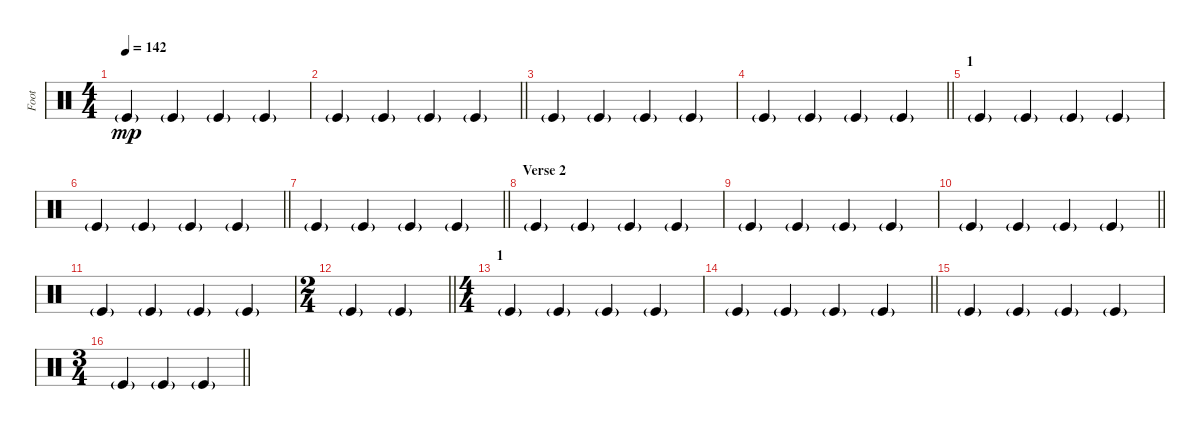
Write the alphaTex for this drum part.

\track ("Foot" "Foot") {instrument percussion}
\staff {score}
\articulation defaults
\ts (4 4)
\tempo 142
\clef neutral
\ks c "Kick (hit)"{g}.4{dy mp} "Kick (hit)"{g}.4 "Kick (hit)"{g}.4 "Kick (hit)"{g}.4
|
\barLineRight lightlight "Kick (hit)"{g}.4 "Kick (hit)"{g}.4 "Kick (hit)"{g}.4 "Kick (hit)"{g}.4
|
"Kick (hit)"{g}.4 "Kick (hit)"{g}.4 "Kick (hit)"{g}.4 "Kick (hit)"{g}.4 |
\barLineRight lightlight "Kick (hit)"{g}.4 "Kick (hit)"{g}.4 "Kick (hit)"{g}.4 "Kick (hit)"{g}.4
|
\section ("" "1")
"Kick (hit)"{g}.4 "Kick (hit)"{g}.4 "Kick (hit)"{g}.4 "Kick (hit)"{g}.4 |
\barLineRight lightlight "Kick (hit)"{g}.4 "Kick (hit)"{g}.4 "Kick (hit)"{g}.4 "Kick (hit)"{g}.4
|
\barLineRight lightlight "Kick (hit)"{g}.4 "Kick (hit)"{g}.4 "Kick (hit)"{g}.4 "Kick (hit)"{g}.4
|
\section ("" "Verse 2")
"Kick (hit)"{g}.4 "Kick (hit)"{g}.4 "Kick (hit)"{g}.4 "Kick (hit)"{g}.4 |
"Kick (hit)"{g}.4 "Kick (hit)"{g}.4 "Kick (hit)"{g}.4 "Kick (hit)"{g}.4 |
\barLineRight lightlight "Kick (hit)"{g}.4 "Kick (hit)"{g}.4 "Kick (hit)"{g}.4 "Kick (hit)"{g}.4
|
"Kick (hit)"{g}.4 "Kick (hit)"{g}.4 "Kick (hit)"{g}.4 "Kick (hit)"{g}.4 |
\ts (2 4)
\barLineRight lightlight "Kick (hit)"{g}.4 "Kick (hit)"{g}.4
|
\ts (4 4)
\section ("" "1")
"Kick (hit)"{g}.4 "Kick (hit)"{g}.4 "Kick (hit)"{g}.4 "Kick (hit)"{g}.4 |
\barLineRight lightlight "Kick (hit)"{g}.4 "Kick (hit)"{g}.4 "Kick (hit)"{g}.4 "Kick (hit)"{g}.4
|
"Kick (hit)"{g}.4 "Kick (hit)"{g}.4 "Kick (hit)"{g}.4 "Kick (hit)"{g}.4 |
\ts (3 4)
\barLineRight lightlight "Kick (hit)"{g}.4 "Kick (hit)"{g}.4 "Kick (hit)"{g}.4
